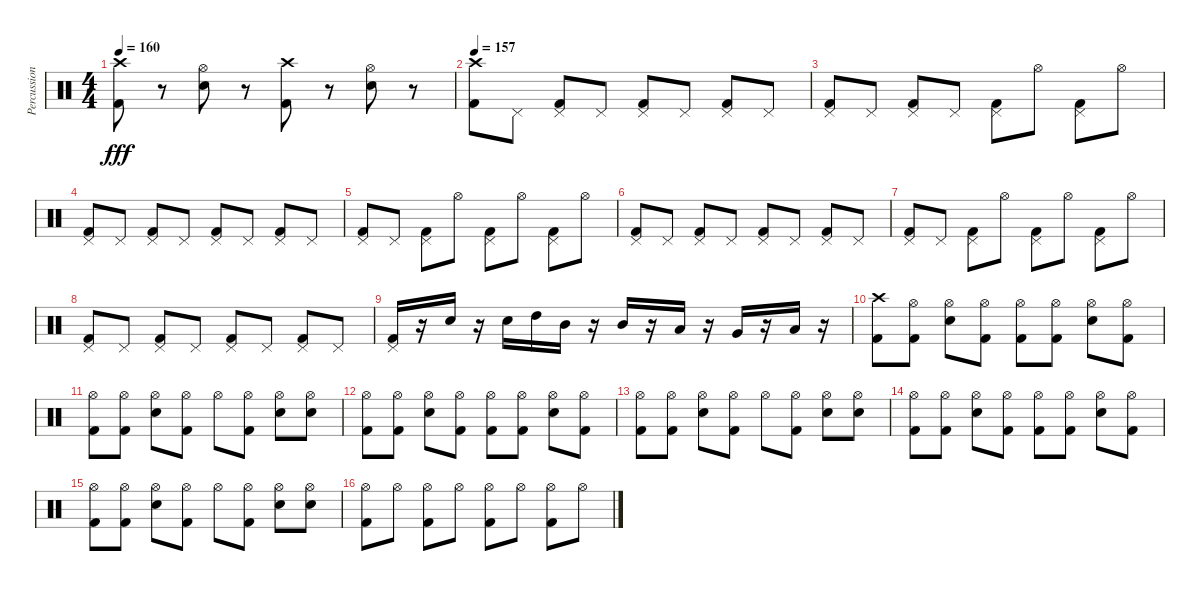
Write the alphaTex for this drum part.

\track ("Percussion" "Percussion") {instrument percussion}
\staff {score}
\articulation defaults
\ts (4 4)
\tempo 160
\clef neutral
\ks c
("Crash high (hit)" "Kick (hit) 2").8{dy fff} r.8 ("Hi-Hat (open)" "Electric Snare (hit)").8 r.8 ("Crash high (hit)" "Kick (hit) 2").8 r.8 ("Hi-Hat (open)" "Electric Snare (hit)").8 r.8 |
\tempo 157
("Crash high (hit)" "Kick (hit) 2").8 "Pedal Hi-Hat (hit)".8 ("Pedal Hi-Hat (hit)" "Kick (hit) 2").8 "Pedal Hi-Hat (hit)".8 ("Pedal Hi-Hat (hit)" "Kick (hit) 2").8 "Pedal Hi-Hat (hit)".8 ("Pedal Hi-Hat (hit)" "Kick (hit) 2").8 "Pedal Hi-Hat (hit)".8 |
("Pedal Hi-Hat (hit)" "Kick (hit) 2").8 "Pedal Hi-Hat (hit)".8 ("Pedal Hi-Hat (hit)" "Kick (hit) 2").8 "Pedal Hi-Hat (hit)".8 ("Pedal Hi-Hat (hit)" "Kick (hit) 2").8 "Hi-Hat (open)".8 ("Pedal Hi-Hat (hit)" "Kick (hit) 2").8 "Hi-Hat (open)".8 |
("Pedal Hi-Hat (hit)" "Kick (hit) 2").8 "Pedal Hi-Hat (hit)".8 ("Pedal Hi-Hat (hit)" "Kick (hit) 2").8 "Pedal Hi-Hat (hit)".8 ("Pedal Hi-Hat (hit)" "Kick (hit) 2").8 "Pedal Hi-Hat (hit)".8 ("Pedal Hi-Hat (hit)" "Kick (hit) 2").8 "Pedal Hi-Hat (hit)".8 |
("Pedal Hi-Hat (hit)" "Kick (hit) 2").8 "Pedal Hi-Hat (hit)".8 ("Pedal Hi-Hat (hit)" "Kick (hit) 2").8 "Hi-Hat (open)".8 ("Pedal Hi-Hat (hit)" "Kick (hit) 2").8 "Hi-Hat (open)".8 ("Pedal Hi-Hat (hit)" "Kick (hit) 2").8 "Hi-Hat (open)".8 |
("Pedal Hi-Hat (hit)" "Kick (hit) 2").8 "Pedal Hi-Hat (hit)".8 ("Pedal Hi-Hat (hit)" "Kick (hit) 2").8 "Pedal Hi-Hat (hit)".8 ("Pedal Hi-Hat (hit)" "Kick (hit) 2").8 "Pedal Hi-Hat (hit)".8 ("Pedal Hi-Hat (hit)" "Kick (hit) 2").8 "Pedal Hi-Hat (hit)".8 |
("Pedal Hi-Hat (hit)" "Kick (hit) 2").8 "Pedal Hi-Hat (hit)".8 ("Pedal Hi-Hat (hit)" "Kick (hit) 2").8 "Hi-Hat (open)".8 ("Pedal Hi-Hat (hit)" "Kick (hit) 2").8 "Hi-Hat (open)".8 ("Pedal Hi-Hat (hit)" "Kick (hit) 2").8 "Hi-Hat (open)".8 |
("Pedal Hi-Hat (hit)" "Kick (hit) 2").8 "Pedal Hi-Hat (hit)".8 ("Pedal Hi-Hat (hit)" "Kick (hit) 2").8 "Pedal Hi-Hat (hit)".8 ("Pedal Hi-Hat (hit)" "Kick (hit) 2").8 "Pedal Hi-Hat (hit)".8 ("Pedal Hi-Hat (hit)" "Kick (hit) 2").8 "Pedal Hi-Hat (hit)".8 |
("Pedal Hi-Hat (hit)" "Kick (hit) 2").16 r.16 "Electric Snare (hit)".16 r.16 "Electric Snare (hit)".16 "High Tom (hit)".16 "Mid Tom (hit)".16 r.16 "Mid Tom (hit)".16 r.16 "Low Tom (hit)".16 r.16 "Very Low Tom (hit)".16 r.16 "Low Floor Tom (hit)".16 r.16 |
("Crash high (hit)" "Kick (hit) 2").8 ("Hi-Hat (open)" "Kick (hit) 2").8 ("Hi-Hat (open)" "Electric Snare (hit)").8 ("Hi-Hat (open)" "Kick (hit) 2").8 ("Hi-Hat (open)" "Kick (hit) 2").8 ("Hi-Hat (open)" "Kick (hit) 2").8 ("Hi-Hat (open)" "Electric Snare (hit)").8 ("Hi-Hat (open)" "Kick (hit) 2").8 |
("Hi-Hat (open)" "Kick (hit) 2").8 ("Hi-Hat (open)" "Kick (hit) 2").8 ("Hi-Hat (open)" "Electric Snare (hit)").8 ("Hi-Hat (open)" "Kick (hit) 2").8 "Hi-Hat (open)".8 ("Hi-Hat (open)" "Kick (hit) 2").8 ("Hi-Hat (open)" "Electric Snare (hit)").8 ("Hi-Hat (open)" "Electric Snare (hit)").8 |
("Hi-Hat (open)" "Kick (hit) 2").8 ("Hi-Hat (open)" "Kick (hit) 2").8 ("Hi-Hat (open)" "Electric Snare (hit)").8 ("Hi-Hat (open)" "Kick (hit) 2").8 ("Hi-Hat (open)" "Kick (hit) 2").8 ("Hi-Hat (open)" "Kick (hit) 2").8 ("Hi-Hat (open)" "Electric Snare (hit)").8 ("Hi-Hat (open)" "Kick (hit) 2").8 |
("Hi-Hat (open)" "Kick (hit) 2").8 ("Hi-Hat (open)" "Kick (hit) 2").8 ("Hi-Hat (open)" "Electric Snare (hit)").8 ("Hi-Hat (open)" "Kick (hit) 2").8 "Hi-Hat (open)".8 ("Hi-Hat (open)" "Kick (hit) 2").8 ("Hi-Hat (open)" "Electric Snare (hit)").8 ("Hi-Hat (open)" "Electric Snare (hit)").8 |
("Hi-Hat (open)" "Kick (hit) 2").8 ("Hi-Hat (open)" "Kick (hit) 2").8 ("Hi-Hat (open)" "Electric Snare (hit)").8 ("Hi-Hat (open)" "Kick (hit) 2").8 ("Hi-Hat (open)" "Kick (hit) 2").8 ("Hi-Hat (open)" "Kick (hit) 2").8 ("Hi-Hat (open)" "Electric Snare (hit)").8 ("Hi-Hat (open)" "Kick (hit) 2").8 |
("Hi-Hat (open)" "Kick (hit) 2").8 ("Hi-Hat (open)" "Kick (hit) 2").8 ("Hi-Hat (open)" "Electric Snare (hit)").8 ("Hi-Hat (open)" "Kick (hit) 2").8 "Hi-Hat (open)".8 ("Hi-Hat (open)" "Kick (hit) 2").8 ("Hi-Hat (open)" "Electric Snare (hit)").8 ("Hi-Hat (open)" "Electric Snare (hit)").8 |
("Hi-Hat (open)" "Kick (hit) 2").8 "Hi-Hat (open)".8 ("Hi-Hat (open)" "Kick (hit) 2").8 "Hi-Hat (open)".8 ("Hi-Hat (open)" "Kick (hit) 2").8 "Hi-Hat (open)".8 ("Hi-Hat (open)" "Kick (hit) 2").8 "Hi-Hat (open)".8
